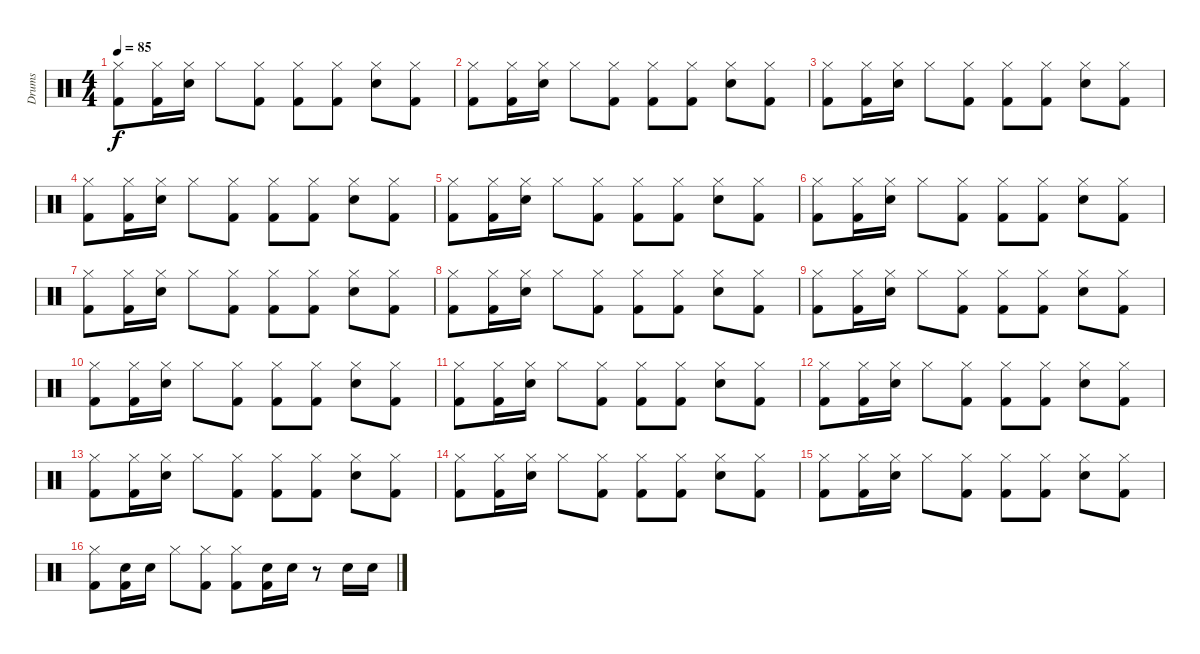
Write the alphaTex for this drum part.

\track ("Drums" "Drums") {instrument percussion}
\staff {score}
\articulation defaults
\ts (4 4)
\tempo 85
\clef neutral
\ks c
("Hi-Hat (closed)" "Kick (hit) 2").8{dy f} ("Hi-Hat (closed)" "Kick (hit) 2").16 ("Snare (hit) 2" "Hi-Hat (closed)").16 "Hi-Hat (closed)".8 ("Hi-Hat (closed)" "Kick (hit) 2").8 ("Hi-Hat (closed)" "Kick (hit) 2").8 ("Hi-Hat (closed)" "Kick (hit) 2").8 ("Snare (hit) 2" "Hi-Hat (closed)").8 ("Hi-Hat (closed)" "Kick (hit) 2").8 |
("Hi-Hat (closed)" "Kick (hit) 2").8 ("Hi-Hat (closed)" "Kick (hit) 2").16 ("Snare (hit) 2" "Hi-Hat (closed)").16 "Hi-Hat (closed)".8 ("Hi-Hat (closed)" "Kick (hit) 2").8 ("Hi-Hat (closed)" "Kick (hit) 2").8 ("Hi-Hat (closed)" "Kick (hit) 2").8 ("Snare (hit) 2" "Hi-Hat (closed)").8 ("Hi-Hat (closed)" "Kick (hit) 2").8 |
("Hi-Hat (closed)" "Kick (hit) 2").8 ("Hi-Hat (closed)" "Kick (hit) 2").16 ("Snare (hit) 2" "Hi-Hat (closed)").16 "Hi-Hat (closed)".8 ("Hi-Hat (closed)" "Kick (hit) 2").8 ("Hi-Hat (closed)" "Kick (hit) 2").8 ("Hi-Hat (closed)" "Kick (hit) 2").8 ("Snare (hit) 2" "Hi-Hat (closed)").8 ("Hi-Hat (closed)" "Kick (hit) 2").8 |
("Hi-Hat (closed)" "Kick (hit) 2").8 ("Hi-Hat (closed)" "Kick (hit) 2").16 ("Snare (hit) 2" "Hi-Hat (closed)").16 "Hi-Hat (closed)".8 ("Hi-Hat (closed)" "Kick (hit) 2").8 ("Hi-Hat (closed)" "Kick (hit) 2").8 ("Hi-Hat (closed)" "Kick (hit) 2").8 ("Snare (hit) 2" "Hi-Hat (closed)").8 ("Hi-Hat (closed)" "Kick (hit) 2").8 |
("Hi-Hat (closed)" "Kick (hit) 2").8 ("Hi-Hat (closed)" "Kick (hit) 2").16 ("Snare (hit) 2" "Hi-Hat (closed)").16 "Hi-Hat (closed)".8 ("Hi-Hat (closed)" "Kick (hit) 2").8 ("Hi-Hat (closed)" "Kick (hit) 2").8 ("Hi-Hat (closed)" "Kick (hit) 2").8 ("Snare (hit) 2" "Hi-Hat (closed)").8 ("Hi-Hat (closed)" "Kick (hit) 2").8 |
("Hi-Hat (closed)" "Kick (hit) 2").8 ("Hi-Hat (closed)" "Kick (hit) 2").16 ("Snare (hit) 2" "Hi-Hat (closed)").16 "Hi-Hat (closed)".8 ("Hi-Hat (closed)" "Kick (hit) 2").8 ("Hi-Hat (closed)" "Kick (hit) 2").8 ("Hi-Hat (closed)" "Kick (hit) 2").8 ("Snare (hit) 2" "Hi-Hat (closed)").8 ("Hi-Hat (closed)" "Kick (hit) 2").8 |
("Hi-Hat (closed)" "Kick (hit) 2").8 ("Hi-Hat (closed)" "Kick (hit) 2").16 ("Snare (hit) 2" "Hi-Hat (closed)").16 "Hi-Hat (closed)".8 ("Hi-Hat (closed)" "Kick (hit) 2").8 ("Hi-Hat (closed)" "Kick (hit) 2").8 ("Hi-Hat (closed)" "Kick (hit) 2").8 ("Snare (hit) 2" "Hi-Hat (closed)").8 ("Hi-Hat (closed)" "Kick (hit) 2").8 |
("Hi-Hat (closed)" "Kick (hit) 2").8 ("Hi-Hat (closed)" "Kick (hit) 2").16 ("Snare (hit) 2" "Hi-Hat (closed)").16 "Hi-Hat (closed)".8 ("Hi-Hat (closed)" "Kick (hit) 2").8 ("Hi-Hat (closed)" "Kick (hit) 2").8 ("Hi-Hat (closed)" "Kick (hit) 2").8 ("Snare (hit) 2" "Hi-Hat (closed)").8 ("Hi-Hat (closed)" "Kick (hit) 2").8 |
("Hi-Hat (closed)" "Kick (hit) 2").8 ("Hi-Hat (closed)" "Kick (hit) 2").16 ("Snare (hit) 2" "Hi-Hat (closed)").16 "Hi-Hat (closed)".8 ("Hi-Hat (closed)" "Kick (hit) 2").8 ("Hi-Hat (closed)" "Kick (hit) 2").8 ("Hi-Hat (closed)" "Kick (hit) 2").8 ("Snare (hit) 2" "Hi-Hat (closed)").8 ("Hi-Hat (closed)" "Kick (hit) 2").8 |
("Hi-Hat (closed)" "Kick (hit) 2").8 ("Hi-Hat (closed)" "Kick (hit) 2").16 ("Snare (hit) 2" "Hi-Hat (closed)").16 "Hi-Hat (closed)".8 ("Hi-Hat (closed)" "Kick (hit) 2").8 ("Hi-Hat (closed)" "Kick (hit) 2").8 ("Hi-Hat (closed)" "Kick (hit) 2").8 ("Snare (hit) 2" "Hi-Hat (closed)").8 ("Hi-Hat (closed)" "Kick (hit) 2").8 |
("Hi-Hat (closed)" "Kick (hit) 2").8 ("Hi-Hat (closed)" "Kick (hit) 2").16 ("Snare (hit) 2" "Hi-Hat (closed)").16 "Hi-Hat (closed)".8 ("Hi-Hat (closed)" "Kick (hit) 2").8 ("Hi-Hat (closed)" "Kick (hit) 2").8 ("Hi-Hat (closed)" "Kick (hit) 2").8 ("Snare (hit) 2" "Hi-Hat (closed)").8 ("Hi-Hat (closed)" "Kick (hit) 2").8 |
("Hi-Hat (closed)" "Kick (hit) 2").8 ("Hi-Hat (closed)" "Kick (hit) 2").16 ("Snare (hit) 2" "Hi-Hat (closed)").16 "Hi-Hat (closed)".8 ("Hi-Hat (closed)" "Kick (hit) 2").8 ("Hi-Hat (closed)" "Kick (hit) 2").8 ("Hi-Hat (closed)" "Kick (hit) 2").8 ("Snare (hit) 2" "Hi-Hat (closed)").8 ("Hi-Hat (closed)" "Kick (hit) 2").8 |
("Hi-Hat (closed)" "Kick (hit) 2").8 ("Hi-Hat (closed)" "Kick (hit) 2").16 ("Snare (hit) 2" "Hi-Hat (closed)").16 "Hi-Hat (closed)".8 ("Hi-Hat (closed)" "Kick (hit) 2").8 ("Hi-Hat (closed)" "Kick (hit) 2").8 ("Hi-Hat (closed)" "Kick (hit) 2").8 ("Snare (hit) 2" "Hi-Hat (closed)").8 ("Hi-Hat (closed)" "Kick (hit) 2").8 |
("Hi-Hat (closed)" "Kick (hit) 2").8 ("Hi-Hat (closed)" "Kick (hit) 2").16 ("Snare (hit) 2" "Hi-Hat (closed)").16 "Hi-Hat (closed)".8 ("Hi-Hat (closed)" "Kick (hit) 2").8 ("Hi-Hat (closed)" "Kick (hit) 2").8 ("Hi-Hat (closed)" "Kick (hit) 2").8 ("Snare (hit) 2" "Hi-Hat (closed)").8 ("Hi-Hat (closed)" "Kick (hit) 2").8 |
("Hi-Hat (closed)" "Kick (hit) 2").8 ("Hi-Hat (closed)" "Kick (hit) 2").16 ("Snare (hit) 2" "Hi-Hat (closed)").16 "Hi-Hat (closed)".8 ("Hi-Hat (closed)" "Kick (hit) 2").8 ("Hi-Hat (closed)" "Kick (hit) 2").8 ("Hi-Hat (closed)" "Kick (hit) 2").8 ("Snare (hit) 2" "Hi-Hat (closed)").8 ("Hi-Hat (closed)" "Kick (hit) 2").8 |
("Hi-Hat (closed)" "Kick (hit) 2").8 ("Snare (hit) 2" "Kick (hit) 2").16 "Snare (hit) 2".16 "Hi-Hat (closed)".8 ("Hi-Hat (closed)" "Kick (hit) 2").8 ("Hi-Hat (closed)" "Kick (hit) 2").8 ("Snare (hit) 2" "Kick (hit) 2").16 "Snare (hit) 2".16 r.8 "Snare (hit) 2".16 "Snare (hit) 2".16
